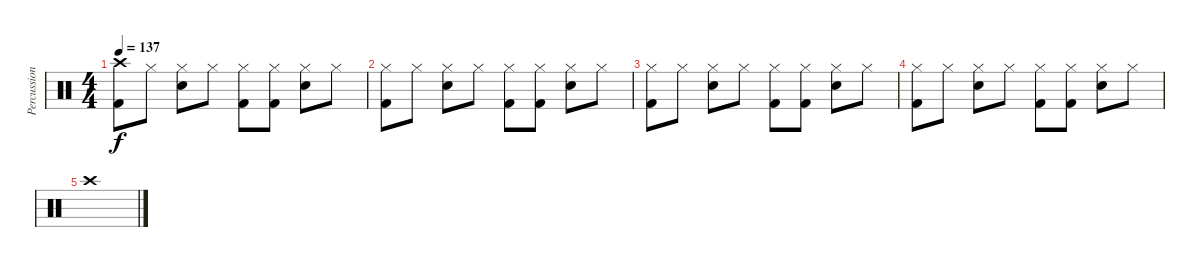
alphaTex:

\track ("Percussions" "Percussion") {instrument percussion}
\staff {score}
\articulation defaults
\ts (4 4)
\tempo 137
\clef neutral
\ks c
("Crash high (hit)" "Kick (hit) 2").8{dy f} "Hi-Hat (closed)".8 ("Hi-Hat (closed)" "Snare (hit) 2").8 "Hi-Hat (closed)".8 ("Hi-Hat (closed)" "Kick (hit) 2").8 ("Hi-Hat (closed)" "Kick (hit) 2").8 ("Hi-Hat (closed)" "Snare (hit) 2").8 "Hi-Hat (closed)".8 |
("Hi-Hat (closed)" "Kick (hit) 2").8 "Hi-Hat (closed)".8 ("Hi-Hat (closed)" "Snare (hit) 2").8 "Hi-Hat (closed)".8 ("Hi-Hat (closed)" "Kick (hit) 2").8 ("Hi-Hat (closed)" "Kick (hit) 2").8 ("Hi-Hat (closed)" "Snare (hit) 2").8 "Hi-Hat (closed)".8 |
("Hi-Hat (closed)" "Kick (hit) 2").8 "Hi-Hat (closed)".8 ("Hi-Hat (closed)" "Snare (hit) 2").8 "Hi-Hat (closed)".8 ("Hi-Hat (closed)" "Kick (hit) 2").8 ("Hi-Hat (closed)" "Kick (hit) 2").8 ("Hi-Hat (closed)" "Snare (hit) 2").8 "Hi-Hat (closed)".8 |
("Hi-Hat (closed)" "Kick (hit) 2").8 "Hi-Hat (closed)".8 ("Hi-Hat (closed)" "Snare (hit) 2").8 "Hi-Hat (closed)".8 ("Hi-Hat (closed)" "Kick (hit) 2").8 ("Hi-Hat (closed)" "Kick (hit) 2").8 ("Hi-Hat (closed)" "Snare (hit) 2").8 "Hi-Hat (closed)".8 |
"Crash high (hit)".1
